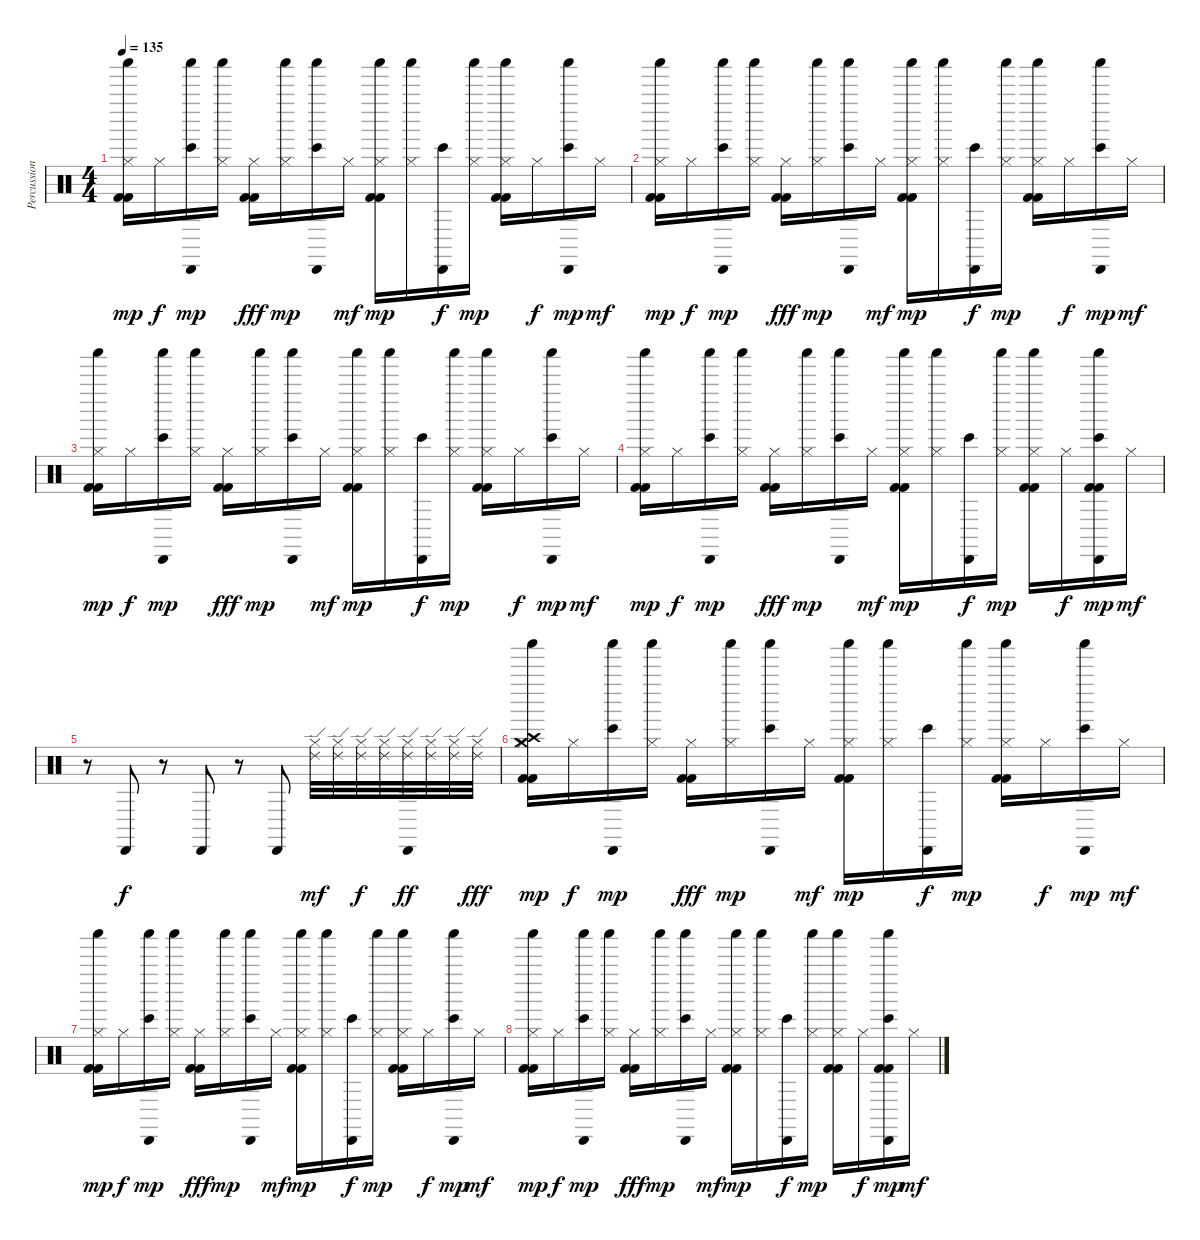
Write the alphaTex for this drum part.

\track ("Percussion" "Percussion") {instrument percussion}
\staff {score}
\articulation defaults
\ts (4 4)
\tempo 135
\clef neutral
\ks c
("Hi-Hat (closed)" "Kick (hit) 2" "Kick (hit) 2" "Shaker (hit)").16{dy mp} "Hi-Hat (closed)".16{dy f} ("Cabasa (hit)" "Bongo High (hit)" "Shaker (hit)").16{dy mp} ("Hi-Hat (closed)" "Shaker (hit)").16 ("Hi-Hat (closed)" "Kick (hit) 2" "Kick (hit) 2").16{dy fff} ("Hi-Hat (closed)" "Shaker (hit)").16{dy mp} ("Cabasa (hit)" "Bongo High (hit)" "Shaker (hit)").16 "Hi-Hat (closed)".16{dy mf} ("Hi-Hat (closed)" "Kick (hit) 2" "Kick (hit) 2" "Shaker (hit)").16{dy mp} ("Hi-Hat (closed)" "Shaker (hit)").16 ("Cabasa (hit)" "Bongo High (hit)").16{dy f} ("Hi-Hat (closed)" "Shaker (hit)").16{dy mp} ("Hi-Hat (closed)" "Kick (hit) 2" "Kick (hit) 2" "Shaker (hit)").16 "Hi-Hat (closed)".16{dy f} ("Cabasa (hit)" "Bongo High (hit)" "Shaker (hit)").16{dy mp} "Hi-Hat (closed)".16{dy mf} |
("Hi-Hat (closed)" "Kick (hit) 2" "Kick (hit) 2" "Shaker (hit)").16{dy mp} "Hi-Hat (closed)".16{dy f} ("Cabasa (hit)" "Bongo High (hit)" "Shaker (hit)").16{dy mp} ("Hi-Hat (closed)" "Shaker (hit)").16 ("Hi-Hat (closed)" "Kick (hit) 2" "Kick (hit) 2").16{dy fff} ("Hi-Hat (closed)" "Shaker (hit)").16{dy mp} ("Cabasa (hit)" "Bongo High (hit)" "Shaker (hit)").16 "Hi-Hat (closed)".16{dy mf} ("Hi-Hat (closed)" "Kick (hit) 2" "Kick (hit) 2" "Shaker (hit)").16{dy mp} ("Hi-Hat (closed)" "Shaker (hit)").16 ("Cabasa (hit)" "Bongo High (hit)").16{dy f} ("Hi-Hat (closed)" "Shaker (hit)").16{dy mp} ("Hi-Hat (closed)" "Kick (hit) 2" "Kick (hit) 2" "Shaker (hit)").16 "Hi-Hat (closed)".16{dy f} ("Cabasa (hit)" "Bongo High (hit)" "Shaker (hit)").16{dy mp} "Hi-Hat (closed)".16{dy mf} |
("Hi-Hat (closed)" "Kick (hit) 2" "Kick (hit) 2" "Shaker (hit)").16{dy mp} "Hi-Hat (closed)".16{dy f} ("Cabasa (hit)" "Bongo High (hit)" "Shaker (hit)").16{dy mp} ("Hi-Hat (closed)" "Shaker (hit)").16 ("Hi-Hat (closed)" "Kick (hit) 2" "Kick (hit) 2").16{dy fff} ("Hi-Hat (closed)" "Shaker (hit)").16{dy mp} ("Cabasa (hit)" "Bongo High (hit)" "Shaker (hit)").16 "Hi-Hat (closed)".16{dy mf} ("Hi-Hat (closed)" "Kick (hit) 2" "Kick (hit) 2" "Shaker (hit)").16{dy mp} ("Hi-Hat (closed)" "Shaker (hit)").16 ("Cabasa (hit)" "Bongo High (hit)").16{dy f} ("Hi-Hat (closed)" "Shaker (hit)").16{dy mp} ("Hi-Hat (closed)" "Kick (hit) 2" "Kick (hit) 2" "Shaker (hit)").16 "Hi-Hat (closed)".16{dy f} ("Cabasa (hit)" "Bongo High (hit)" "Shaker (hit)").16{dy mp} "Hi-Hat (closed)".16{dy mf} |
("Hi-Hat (closed)" "Kick (hit) 2" "Kick (hit) 2" "Shaker (hit)").16{dy mp} "Hi-Hat (closed)".16{dy f} ("Cabasa (hit)" "Bongo High (hit)" "Shaker (hit)").16{dy mp} ("Hi-Hat (closed)" "Shaker (hit)").16 ("Hi-Hat (closed)" "Kick (hit) 2" "Kick (hit) 2").16{dy fff} ("Hi-Hat (closed)" "Shaker (hit)").16{dy mp} ("Cabasa (hit)" "Bongo High (hit)" "Shaker (hit)").16 "Hi-Hat (closed)".16{dy mf} ("Hi-Hat (closed)" "Kick (hit) 2" "Kick (hit) 2" "Shaker (hit)").16{dy mp} ("Hi-Hat (closed)" "Shaker (hit)").16 ("Cabasa (hit)" "Bongo High (hit)").16{dy f} ("Hi-Hat (closed)" "Shaker (hit)").16{dy mp} ("Hi-Hat (closed)" "Kick (hit) 2" "Kick (hit) 2" "Shaker (hit)").16 "Hi-Hat (closed)".16{dy f} ("Cabasa (hit)" "Bongo High (hit)" "Kick (hit) 2" "Kick (hit) 2" "Shaker (hit)").16{dy mp} "Hi-Hat (closed)".16{dy mf} |
r.8 "Cabasa (hit)".8{dy f} r.8 "Cabasa (hit)".8 r.8 "Cabasa (hit)".8 ("Hi-Hat (closed)" "Ride (edge) 2").32{dy mf} ("Hi-Hat (closed)" "Ride (edge) 2").32 ("Hi-Hat (closed)" "Ride (edge) 2").32{dy f} ("Hi-Hat (closed)" "Ride (edge) 2").32 ("Hi-Hat (closed)" "Cabasa (hit)" "Ride (edge) 2").32{dy ff} ("Hi-Hat (closed)" "Ride (edge) 2").32 ("Hi-Hat (closed)" "Ride (edge) 2").32 ("Hi-Hat (closed)" "Ride (edge) 2").32{dy fff} |
("Crash medium (hit)" "Hi-Hat (closed)" "Crash high (hit)" "Kick (hit) 2" "Kick (hit) 2" "Shaker (hit)").16{dy mp} "Hi-Hat (closed)".16{dy f} ("Cabasa (hit)" "Bongo High (hit)" "Shaker (hit)").16{dy mp} ("Hi-Hat (closed)" "Shaker (hit)").16 ("Hi-Hat (closed)" "Kick (hit) 2" "Kick (hit) 2").16{dy fff} ("Hi-Hat (closed)" "Shaker (hit)").16{dy mp} ("Cabasa (hit)" "Bongo High (hit)" "Shaker (hit)").16 "Hi-Hat (closed)".16{dy mf} ("Hi-Hat (closed)" "Kick (hit) 2" "Kick (hit) 2" "Shaker (hit)").16{dy mp} ("Hi-Hat (closed)" "Shaker (hit)").16 ("Cabasa (hit)" "Bongo High (hit)").16{dy f} ("Hi-Hat (closed)" "Shaker (hit)").16{dy mp} ("Hi-Hat (closed)" "Kick (hit) 2" "Kick (hit) 2" "Shaker (hit)").16 "Hi-Hat (closed)".16{dy f} ("Cabasa (hit)" "Bongo High (hit)" "Shaker (hit)").16{dy mp} "Hi-Hat (closed)".16{dy mf} |
("Hi-Hat (closed)" "Kick (hit) 2" "Kick (hit) 2" "Shaker (hit)").16{dy mp} "Hi-Hat (closed)".16{dy f} ("Cabasa (hit)" "Bongo High (hit)" "Shaker (hit)").16{dy mp} ("Hi-Hat (closed)" "Shaker (hit)").16 ("Hi-Hat (closed)" "Kick (hit) 2" "Kick (hit) 2").16{dy fff} ("Hi-Hat (closed)" "Shaker (hit)").16{dy mp} ("Cabasa (hit)" "Bongo High (hit)" "Shaker (hit)").16 "Hi-Hat (closed)".16{dy mf} ("Hi-Hat (closed)" "Kick (hit) 2" "Kick (hit) 2" "Shaker (hit)").16{dy mp} ("Hi-Hat (closed)" "Shaker (hit)").16 ("Cabasa (hit)" "Bongo High (hit)").16{dy f} ("Hi-Hat (closed)" "Shaker (hit)").16{dy mp} ("Hi-Hat (closed)" "Kick (hit) 2" "Kick (hit) 2" "Shaker (hit)").16 "Hi-Hat (closed)".16{dy f} ("Cabasa (hit)" "Bongo High (hit)" "Shaker (hit)").16{dy mp} "Hi-Hat (closed)".16{dy mf} |
("Hi-Hat (closed)" "Kick (hit) 2" "Kick (hit) 2" "Shaker (hit)").16{dy mp} "Hi-Hat (closed)".16{dy f} ("Cabasa (hit)" "Bongo High (hit)" "Shaker (hit)").16{dy mp} ("Hi-Hat (closed)" "Shaker (hit)").16 ("Hi-Hat (closed)" "Kick (hit) 2" "Kick (hit) 2").16{dy fff} ("Hi-Hat (closed)" "Shaker (hit)").16{dy mp} ("Cabasa (hit)" "Bongo High (hit)" "Shaker (hit)").16 "Hi-Hat (closed)".16{dy mf} ("Hi-Hat (closed)" "Kick (hit) 2" "Kick (hit) 2" "Shaker (hit)").16{dy mp} ("Hi-Hat (closed)" "Shaker (hit)").16 ("Cabasa (hit)" "Bongo High (hit)").16{dy f} ("Hi-Hat (closed)" "Shaker (hit)").16{dy mp} ("Hi-Hat (closed)" "Kick (hit) 2" "Kick (hit) 2" "Shaker (hit)").16 "Hi-Hat (closed)".16{dy f} ("Cabasa (hit)" "Bongo High (hit)" "Kick (hit) 2" "Kick (hit) 2" "Shaker (hit)").16{dy mp} "Hi-Hat (closed)".16{dy mf}
